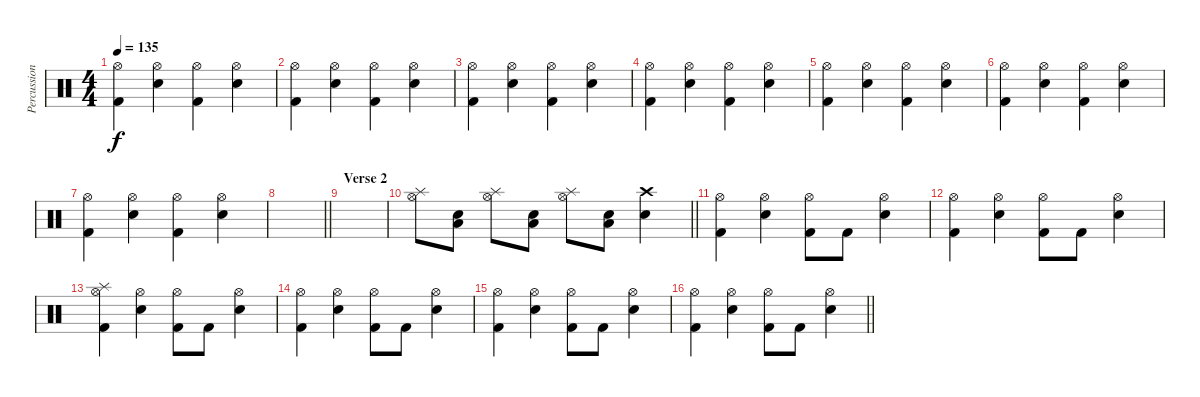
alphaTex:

\track ("Percussion" "Percussion") {instrument percussion}
\staff {score}
\articulation defaults
\ts (4 4)
\tempo 135
\clef neutral
\ks c
("Hi-Hat (open)" "Kick (hit) 2").4{dy f} ("Hi-Hat (open)" "Snare (hit) 2").4 ("Hi-Hat (open)" "Kick (hit) 2").4 ("Hi-Hat (open)" "Snare (hit) 2").4 |
("Hi-Hat (open)" "Kick (hit) 2").4 ("Hi-Hat (open)" "Snare (hit) 2").4 ("Hi-Hat (open)" "Kick (hit) 2").4 ("Hi-Hat (open)" "Snare (hit) 2").4 |
("Hi-Hat (open)" "Kick (hit) 2").4 ("Hi-Hat (open)" "Snare (hit) 2").4 ("Hi-Hat (open)" "Kick (hit) 2").4 ("Hi-Hat (open)" "Snare (hit) 2").4 |
("Hi-Hat (open)" "Kick (hit) 2").4 ("Hi-Hat (open)" "Snare (hit) 2").4 ("Hi-Hat (open)" "Kick (hit) 2").4 ("Hi-Hat (open)" "Snare (hit) 2").4 |
("Hi-Hat (open)" "Kick (hit) 2").4 ("Hi-Hat (open)" "Snare (hit) 2").4 ("Hi-Hat (open)" "Kick (hit) 2").4 ("Hi-Hat (open)" "Snare (hit) 2").4 |
("Hi-Hat (open)" "Kick (hit) 2").4 ("Hi-Hat (open)" "Snare (hit) 2").4 ("Hi-Hat (open)" "Kick (hit) 2").4 ("Hi-Hat (open)" "Snare (hit) 2").4 |
("Hi-Hat (open)" "Kick (hit) 2").4 ("Hi-Hat (open)" "Snare (hit) 2").4 ("Hi-Hat (open)" "Kick (hit) 2").4 ("Hi-Hat (open)" "Snare (hit) 2").4 |
\barLineRight lightlight
|
\section ("" "Verse 2")
|
\barLineRight lightlight
("Splash (hit)" "Hi-Hat (open)").8 ("Low Floor Tom (hit)" "Snare (hit) 2").8 ("Splash (hit)" "Hi-Hat (open)").8 ("Low Floor Tom (hit)" "Snare (hit) 2").8 ("Splash (hit)" "Hi-Hat (open)").8 ("Low Floor Tom (hit)" "Snare (hit) 2").8 ("Crash high (hit)" "Snare (hit) 2").4 |
("Hi-Hat (open)" "Kick (hit) 2").4 ("Hi-Hat (open)" "Snare (hit) 2").4 ("Hi-Hat (open)" "Kick (hit) 2").8 "Kick (hit) 2".8 ("Hi-Hat (open)" "Snare (hit) 2").4 |
("Hi-Hat (open)" "Kick (hit) 2").4 ("Hi-Hat (open)" "Snare (hit) 2").4 ("Hi-Hat (open)" "Kick (hit) 2").8 "Kick (hit) 2".8 ("Hi-Hat (open)" "Snare (hit) 2").4 |
("Splash (hit)" "Hi-Hat (open)" "Kick (hit) 2").4 ("Hi-Hat (open)" "Snare (hit) 2").4 ("Hi-Hat (open)" "Kick (hit) 2").8 "Kick (hit) 2".8 ("Hi-Hat (open)" "Snare (hit) 2").4 |
("Hi-Hat (open)" "Kick (hit) 2").4 ("Hi-Hat (open)" "Snare (hit) 2").4 ("Hi-Hat (open)" "Kick (hit) 2").8 "Kick (hit) 2".8 ("Hi-Hat (open)" "Snare (hit) 2").4 |
("Hi-Hat (open)" "Kick (hit) 2").4 ("Hi-Hat (open)" "Snare (hit) 2").4 ("Hi-Hat (open)" "Kick (hit) 2").8 "Kick (hit) 2".8 ("Hi-Hat (open)" "Snare (hit) 2").4 |
\barLineRight lightlight
("Hi-Hat (open)" "Kick (hit) 2").4 ("Hi-Hat (open)" "Snare (hit) 2").4 ("Hi-Hat (open)" "Kick (hit) 2").8 "Kick (hit) 2".8 ("Hi-Hat (open)" "Snare (hit) 2").4
